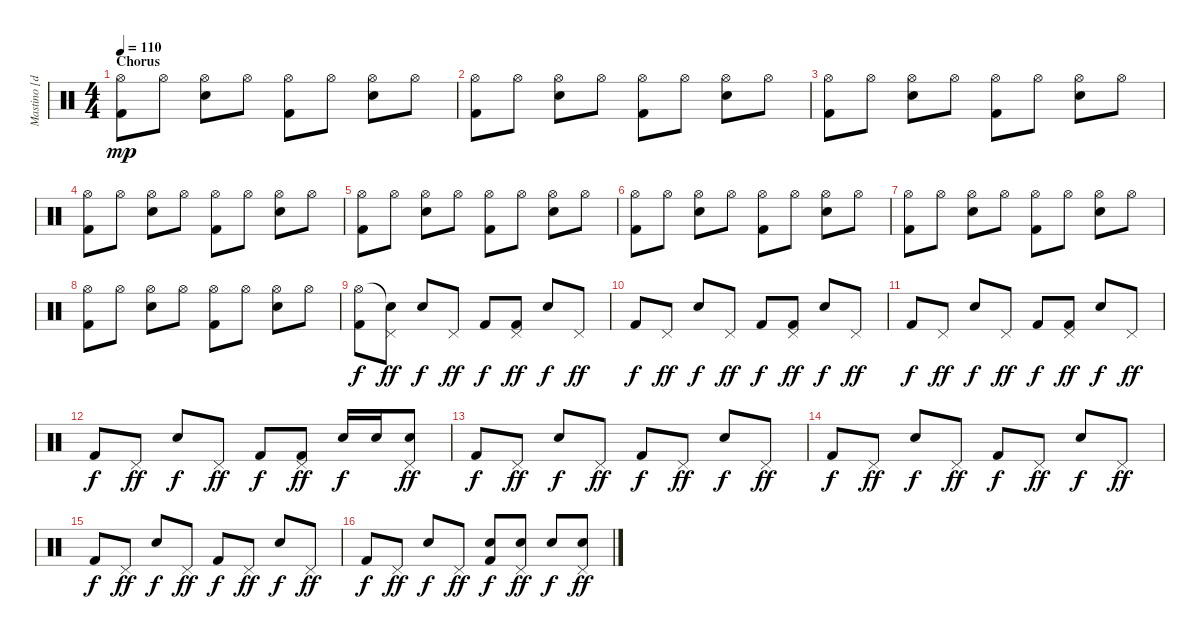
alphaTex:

\track ("Mastino [drums]" "Mastino [d") {instrument percussion}
\staff {score}
\articulation defaults
\ts (4 4)
\section ("" "Chorus")
\tempo 110
\clef neutral
\ks c
("Hi-Hat (open)" "Kick (hit) 2").8{dy mp} "Hi-Hat (open)".8 ("Hi-Hat (open)" "Electric Snare (hit)").8 "Hi-Hat (open)".8 ("Hi-Hat (open)" "Kick (hit) 2").8 "Hi-Hat (open)".8 ("Hi-Hat (open)" "Electric Snare (hit)").8 "Hi-Hat (open)".8 |
("Hi-Hat (open)" "Kick (hit) 2").8 "Hi-Hat (open)".8 ("Hi-Hat (open)" "Electric Snare (hit)").8 "Hi-Hat (open)".8 ("Hi-Hat (open)" "Kick (hit) 2").8 "Hi-Hat (open)".8 ("Hi-Hat (open)" "Electric Snare (hit)").8 "Hi-Hat (open)".8 |
("Hi-Hat (open)" "Kick (hit) 2").8 "Hi-Hat (open)".8 ("Hi-Hat (open)" "Electric Snare (hit)").8 "Hi-Hat (open)".8 ("Hi-Hat (open)" "Kick (hit) 2").8 "Hi-Hat (open)".8 ("Hi-Hat (open)" "Electric Snare (hit)").8 "Hi-Hat (open)".8 |
("Hi-Hat (open)" "Kick (hit) 2").8 "Hi-Hat (open)".8 ("Hi-Hat (open)" "Electric Snare (hit)").8 "Hi-Hat (open)".8 ("Hi-Hat (open)" "Kick (hit) 2").8 "Hi-Hat (open)".8 ("Hi-Hat (open)" "Electric Snare (hit)").8 "Hi-Hat (open)".8 |
("Hi-Hat (open)" "Kick (hit) 2").8 "Hi-Hat (open)".8 ("Hi-Hat (open)" "Electric Snare (hit)").8 "Hi-Hat (open)".8 ("Hi-Hat (open)" "Kick (hit) 2").8 "Hi-Hat (open)".8 ("Hi-Hat (open)" "Electric Snare (hit)").8 "Hi-Hat (open)".8 |
("Hi-Hat (open)" "Kick (hit) 2").8 "Hi-Hat (open)".8 ("Hi-Hat (open)" "Electric Snare (hit)").8 "Hi-Hat (open)".8 ("Hi-Hat (open)" "Kick (hit) 2").8 "Hi-Hat (open)".8 ("Hi-Hat (open)" "Electric Snare (hit)").8 "Hi-Hat (open)".8 |
("Hi-Hat (open)" "Kick (hit) 2").8 "Hi-Hat (open)".8 ("Hi-Hat (open)" "Electric Snare (hit)").8 "Hi-Hat (open)".8 ("Hi-Hat (open)" "Kick (hit) 2").8 "Hi-Hat (open)".8 ("Hi-Hat (open)" "Electric Snare (hit)").8 "Hi-Hat (open)".8 |
("Hi-Hat (open)" "Kick (hit) 2").8 "Hi-Hat (open)".8 ("Hi-Hat (open)" "Electric Snare (hit)").8 "Hi-Hat (open)".8 ("Hi-Hat (open)" "Kick (hit) 2").8 "Hi-Hat (open)".8 ("Hi-Hat (open)" "Electric Snare (hit)").8 "Hi-Hat (open)".8 |
("Hi-Hat (open)" "Kick (hit) 2").8{dy f} ("Snare (hit)"{t} "Pedal Hi-Hat (hit)").8{dy ff} "Electric Snare (hit)".8{dy f} "Pedal Hi-Hat (hit)".8{dy ff} "Kick (hit) 2".8{dy f} ("Pedal Hi-Hat (hit)" "Kick (hit) 2").8{dy ff} "Electric Snare (hit)".8{dy f} "Pedal Hi-Hat (hit)".8{dy ff} |
"Kick (hit) 2".8{dy f} "Pedal Hi-Hat (hit)".8{dy ff} "Electric Snare (hit)".8{dy f} "Pedal Hi-Hat (hit)".8{dy ff} "Kick (hit) 2".8{dy f} ("Pedal Hi-Hat (hit)" "Kick (hit) 2").8{dy ff} "Electric Snare (hit)".8{dy f} "Pedal Hi-Hat (hit)".8{dy ff} |
"Kick (hit) 2".8{dy f} "Pedal Hi-Hat (hit)".8{dy ff} "Electric Snare (hit)".8{dy f} "Pedal Hi-Hat (hit)".8{dy ff} "Kick (hit) 2".8{dy f} ("Pedal Hi-Hat (hit)" "Kick (hit) 2").8{dy ff} "Electric Snare (hit)".8{dy f} "Pedal Hi-Hat (hit)".8{dy ff} |
"Kick (hit) 2".8{dy f} "Pedal Hi-Hat (hit)".8{dy ff} "Electric Snare (hit)".8{dy f} "Pedal Hi-Hat (hit)".8{dy ff} "Kick (hit) 2".8{dy f} ("Pedal Hi-Hat (hit)" "Kick (hit) 2").8{dy ff} "Electric Snare (hit)".16{dy f} "Electric Snare (hit)".16 ("Pedal Hi-Hat (hit)" "Electric Snare (hit)").8{dy ff} |
"Kick (hit) 2".8{dy f} "Pedal Hi-Hat (hit)".8{dy ff} "Electric Snare (hit)".8{dy f} "Pedal Hi-Hat (hit)".8{dy ff} "Kick (hit) 2".8{dy f} "Pedal Hi-Hat (hit)".8{dy ff} "Electric Snare (hit)".8{dy f} "Pedal Hi-Hat (hit)".8{dy ff} |
"Kick (hit) 2".8{dy f} "Pedal Hi-Hat (hit)".8{dy ff} "Electric Snare (hit)".8{dy f} "Pedal Hi-Hat (hit)".8{dy ff} "Kick (hit) 2".8{dy f} "Pedal Hi-Hat (hit)".8{dy ff} "Electric Snare (hit)".8{dy f} "Pedal Hi-Hat (hit)".8{dy ff} |
"Kick (hit) 2".8{dy f} "Pedal Hi-Hat (hit)".8{dy ff} "Electric Snare (hit)".8{dy f} "Pedal Hi-Hat (hit)".8{dy ff} "Kick (hit) 2".8{dy f} "Pedal Hi-Hat (hit)".8{dy ff} "Electric Snare (hit)".8{dy f} "Pedal Hi-Hat (hit)".8{dy ff} |
"Kick (hit) 2".8{dy f} "Pedal Hi-Hat (hit)".8{dy ff} "Electric Snare (hit)".8{dy f} "Pedal Hi-Hat (hit)".8{dy ff} ("Electric Snare (hit)" "Kick (hit) 2").8{dy f} ("Pedal Hi-Hat (hit)" "Electric Snare (hit)").8{dy ff} "Electric Snare (hit)".8{dy f} ("Pedal Hi-Hat (hit)" "Electric Snare (hit)").8{dy ff}
